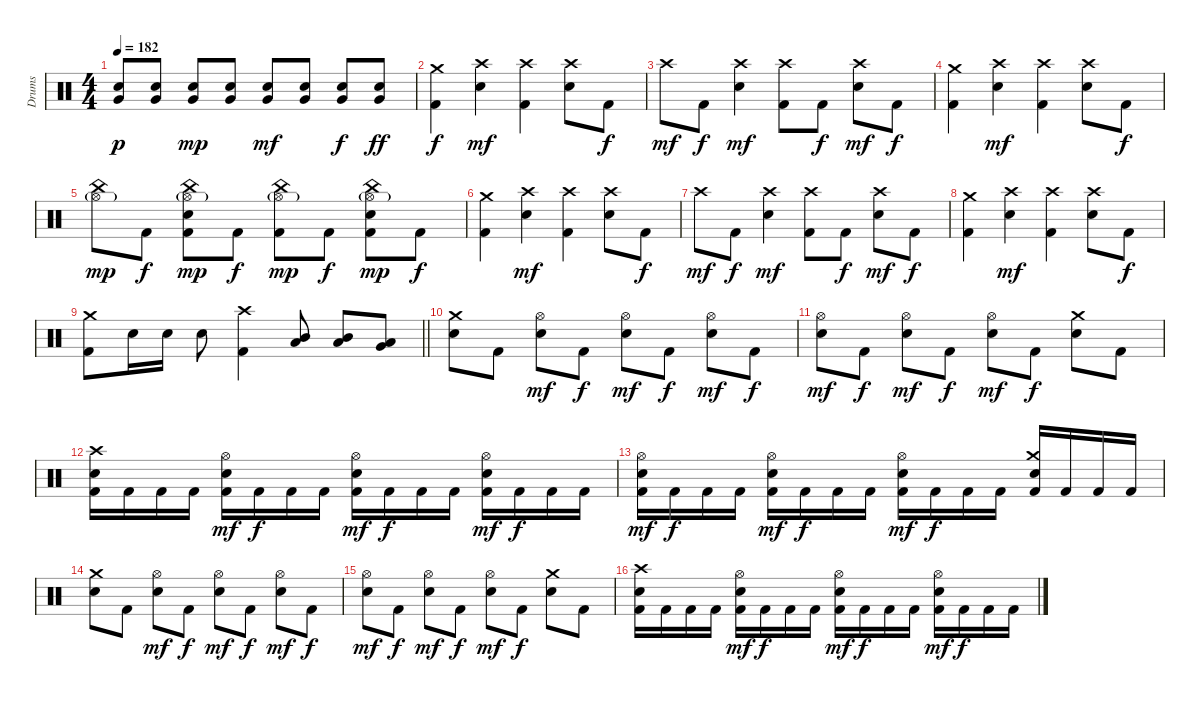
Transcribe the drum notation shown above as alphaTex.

\track ("Drums" "Drums") {instrument percussion}
\staff {score}
\articulation defaults
\ts (4 4)
\tempo 182
\clef neutral
\ks c
("Very Low Tom (hit)" "Electric Snare (hit)").8{dy p} ("Very Low Tom (hit)" "Electric Snare (hit)").8 ("Very Low Tom (hit)" "Electric Snare (hit)").8{dy mp} ("Very Low Tom (hit)" "Electric Snare (hit)").8 ("Very Low Tom (hit)" "Electric Snare (hit)").8{dy mf} ("Very Low Tom (hit)" "Electric Snare (hit)").8 ("Very Low Tom (hit)" "Electric Snare (hit)").8{dy f} ("Very Low Tom (hit)" "Electric Snare (hit)").8{dy ff} |
("Crash medium (hit)" "Kick (hit) 2").4{dy f} ("Crash high (hit)" "Electric Snare (hit)").4{dy mf} ("Crash high (hit)" "Kick (hit) 2").4 ("Crash high (hit)" "Electric Snare (hit)").8 "Kick (hit) 2".8{dy f} |
"Crash high (hit)".8{dy mf} "Kick (hit) 2".8{dy f} ("Crash high (hit)" "Electric Snare (hit)").4{dy mf} ("Crash high (hit)" "Kick (hit) 2").8 "Kick (hit) 2".8{dy f} ("Crash high (hit)" "Electric Snare (hit)").8{dy mf} "Kick (hit) 2".8{dy f} |
("Crash medium (hit)" "Kick (hit) 2").4 ("Crash high (hit)" "Electric Snare (hit)").4{dy mf} ("Crash high (hit)" "Kick (hit) 2").4 ("Crash high (hit)" "Electric Snare (hit)").8 "Kick (hit) 2".8{dy f} |
("China (hit)" "Hi-Hat (open)"{g}).8{dy mp} "Kick (hit) 2".8{dy f} ("China (hit)" "Hi-Hat (open)"{g} "Electric Snare (hit)" "Kick (hit) 2").8{dy mp} "Kick (hit) 2".8{dy f} ("China (hit)" "Hi-Hat (open)"{g} "Kick (hit) 2").8{dy mp} "Kick (hit) 2".8{dy f} ("China (hit)" "Hi-Hat (open)"{g} "Electric Snare (hit)" "Kick (hit) 2").8{dy mp} "Kick (hit) 2".8{dy f} |
("Crash medium (hit)" "Kick (hit) 2").4 ("Crash high (hit)" "Electric Snare (hit)").4{dy mf} ("Crash high (hit)" "Kick (hit) 2").4 ("Crash high (hit)" "Electric Snare (hit)").8 "Kick (hit) 2".8{dy f} |
"Crash high (hit)".8{dy mf} "Kick (hit) 2".8{dy f} ("Crash high (hit)" "Electric Snare (hit)").4{dy mf} ("Crash high (hit)" "Kick (hit) 2").8 "Kick (hit) 2".8{dy f} ("Crash high (hit)" "Electric Snare (hit)").8{dy mf} "Kick (hit) 2".8{dy f} |
("Crash medium (hit)" "Kick (hit) 2").4 ("Crash high (hit)" "Electric Snare (hit)").4{dy mf} ("Crash high (hit)" "Kick (hit) 2").4 ("Crash high (hit)" "Electric Snare (hit)").8 "Kick (hit) 2".8{dy f} |
\barLineRight lightlight
("Crash medium (hit)" "Kick (hit) 2").8 "Electric Snare (hit)".16 "Electric Snare (hit)".16 "Electric Snare (hit)".8 ("Crash high (hit)" "Kick (hit) 2").4 ("Mid Tom (hit)" "Low Tom (hit)").8 ("Mid Tom (hit)" "Low Tom (hit)").8 ("Low Tom (hit)" "Very Low Tom (hit)").8 |
("Crash medium (hit)" "Electric Snare (hit)").8 "Kick (hit) 2".8 ("Hi-Hat (open)" "Electric Snare (hit)").8{dy mf} "Kick (hit) 2".8{dy f} ("Hi-Hat (open)" "Electric Snare (hit)").8{dy mf} "Kick (hit) 2".8{dy f} ("Hi-Hat (open)" "Electric Snare (hit)").8{dy mf} "Kick (hit) 2".8{dy f} |
("Hi-Hat (open)" "Electric Snare (hit)").8{dy mf} "Kick (hit) 2".8{dy f} ("Hi-Hat (open)" "Electric Snare (hit)").8{dy mf} "Kick (hit) 2".8{dy f} ("Hi-Hat (open)" "Electric Snare (hit)").8{dy mf} "Kick (hit) 2".8{dy f} ("Crash medium (hit)" "Electric Snare (hit)").8 "Kick (hit) 2".8 |
("Crash high (hit)" "Electric Snare (hit)" "Kick (hit) 2").16 "Kick (hit) 2".16 "Kick (hit) 2".16 "Kick (hit) 2".16 ("Hi-Hat (open)" "Electric Snare (hit)" "Kick (hit) 2").16{dy mf} "Kick (hit) 2".16{dy f} "Kick (hit) 2".16 "Kick (hit) 2".16 ("Hi-Hat (open)" "Electric Snare (hit)" "Kick (hit) 2").16{dy mf} "Kick (hit) 2".16{dy f} "Kick (hit) 2".16 "Kick (hit) 2".16 ("Hi-Hat (open)" "Electric Snare (hit)" "Kick (hit) 2").16{dy mf} "Kick (hit) 2".16{dy f} "Kick (hit) 2".16 "Kick (hit) 2".16 |
("Hi-Hat (open)" "Electric Snare (hit)" "Kick (hit) 2").16{dy mf} "Kick (hit) 2".16{dy f} "Kick (hit) 2".16 "Kick (hit) 2".16 ("Hi-Hat (open)" "Electric Snare (hit)" "Kick (hit) 2").16{dy mf} "Kick (hit) 2".16{dy f} "Kick (hit) 2".16 "Kick (hit) 2".16 ("Hi-Hat (open)" "Electric Snare (hit)" "Kick (hit) 2").16{dy mf} "Kick (hit) 2".16{dy f} "Kick (hit) 2".16 "Kick (hit) 2".16 ("Crash medium (hit)" "Electric Snare (hit)" "Kick (hit) 2").16 "Kick (hit) 2".16 "Kick (hit) 2".16 "Kick (hit) 2".16 |
("Crash medium (hit)" "Electric Snare (hit)").8 "Kick (hit) 2".8 ("Hi-Hat (open)" "Electric Snare (hit)").8{dy mf} "Kick (hit) 2".8{dy f} ("Hi-Hat (open)" "Electric Snare (hit)").8{dy mf} "Kick (hit) 2".8{dy f} ("Hi-Hat (open)" "Electric Snare (hit)").8{dy mf} "Kick (hit) 2".8{dy f} |
("Hi-Hat (open)" "Electric Snare (hit)").8{dy mf} "Kick (hit) 2".8{dy f} ("Hi-Hat (open)" "Electric Snare (hit)").8{dy mf} "Kick (hit) 2".8{dy f} ("Hi-Hat (open)" "Electric Snare (hit)").8{dy mf} "Kick (hit) 2".8{dy f} ("Crash medium (hit)" "Electric Snare (hit)").8 "Kick (hit) 2".8 |
("Crash high (hit)" "Electric Snare (hit)" "Kick (hit) 2").16 "Kick (hit) 2".16 "Kick (hit) 2".16 "Kick (hit) 2".16 ("Hi-Hat (open)" "Electric Snare (hit)" "Kick (hit) 2").16{dy mf} "Kick (hit) 2".16{dy f} "Kick (hit) 2".16 "Kick (hit) 2".16 ("Hi-Hat (open)" "Electric Snare (hit)" "Kick (hit) 2").16{dy mf} "Kick (hit) 2".16{dy f} "Kick (hit) 2".16 "Kick (hit) 2".16 ("Hi-Hat (open)" "Electric Snare (hit)" "Kick (hit) 2").16{dy mf} "Kick (hit) 2".16{dy f} "Kick (hit) 2".16 "Kick (hit) 2".16
